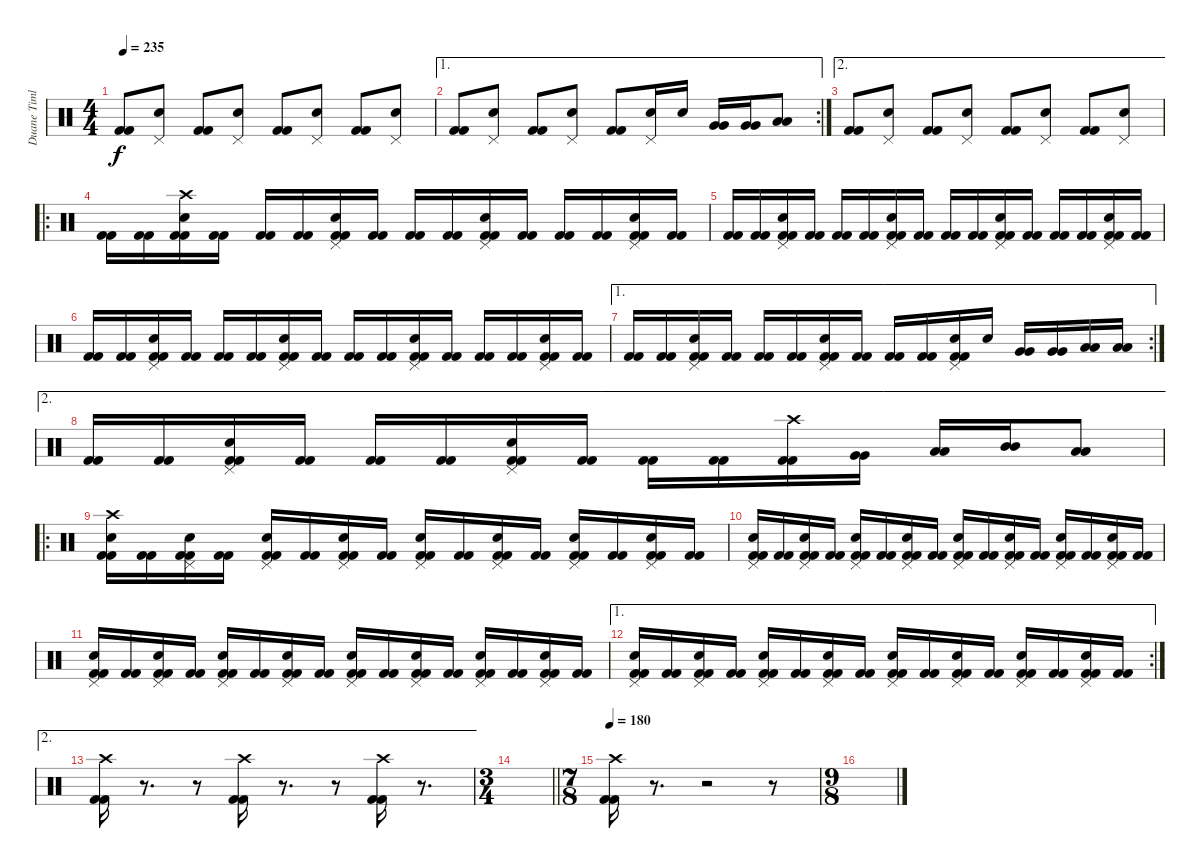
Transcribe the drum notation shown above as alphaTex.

\track ("Duane Timlin" "Duane Timl") {instrument percussion}
\staff {score}
\articulation defaults
\ts (4 4)
\tempo 235
\clef neutral
\ks c
("Kick (hit) 2" "Kick (hit) 2").8{dy f} ("Pedal Hi-Hat (hit)" "Electric Snare (hit)").8 ("Kick (hit) 2" "Kick (hit) 2").8 ("Pedal Hi-Hat (hit)" "Electric Snare (hit)").8 ("Kick (hit) 2" "Kick (hit) 2").8 ("Pedal Hi-Hat (hit)" "Electric Snare (hit)").8 ("Kick (hit) 2" "Kick (hit) 2").8 ("Pedal Hi-Hat (hit)" "Electric Snare (hit)").8 |
\ae 1
\rc 2
("Kick (hit) 2" "Kick (hit) 2").8 ("Pedal Hi-Hat (hit)" "Electric Snare (hit)").8 ("Kick (hit) 2" "Kick (hit) 2").8 ("Pedal Hi-Hat (hit)" "Electric Snare (hit)").8 ("Kick (hit) 2" "Kick (hit) 2").8 ("Pedal Hi-Hat (hit)" "Electric Snare (hit)").16 "Electric Snare (hit)".16 ("Very Low Tom (hit)" "Very Low Tom (hit)").16 ("Very Low Tom (hit)" "Very Low Tom (hit)").16 ("Low Tom (hit)" "Low Tom (hit)").8 |
\ae 2
("Kick (hit) 2" "Kick (hit) 2").8 ("Pedal Hi-Hat (hit)" "Electric Snare (hit)").8 ("Kick (hit) 2" "Kick (hit) 2").8 ("Pedal Hi-Hat (hit)" "Electric Snare (hit)").8 ("Kick (hit) 2" "Kick (hit) 2").8 ("Pedal Hi-Hat (hit)" "Electric Snare (hit)").8 ("Kick (hit) 2" "Kick (hit) 2").8 ("Pedal Hi-Hat (hit)" "Electric Snare (hit)").8 |
\ro
("Kick (hit) 2" "Kick (hit) 2").16 ("Kick (hit) 2" "Kick (hit) 2").16 ("Crash high (hit)" "Electric Snare (hit)" "Kick (hit) 2" "Kick (hit) 2").16 ("Kick (hit) 2" "Kick (hit) 2").16 ("Kick (hit) 2" "Kick (hit) 2").16 ("Kick (hit) 2" "Kick (hit) 2").16 ("Pedal Hi-Hat (hit)" "Electric Snare (hit)" "Kick (hit) 2" "Kick (hit) 2").16 ("Kick (hit) 2" "Kick (hit) 2").16 ("Kick (hit) 2" "Kick (hit) 2").16 ("Kick (hit) 2" "Kick (hit) 2").16 ("Pedal Hi-Hat (hit)" "Electric Snare (hit)" "Kick (hit) 2" "Kick (hit) 2").16 ("Kick (hit) 2" "Kick (hit) 2").16 ("Kick (hit) 2" "Kick (hit) 2").16 ("Kick (hit) 2" "Kick (hit) 2").16 ("Pedal Hi-Hat (hit)" "Electric Snare (hit)" "Kick (hit) 2" "Kick (hit) 2").16 ("Kick (hit) 2" "Kick (hit) 2").16 |
("Kick (hit) 2" "Kick (hit) 2").16 ("Kick (hit) 2" "Kick (hit) 2").16 ("Pedal Hi-Hat (hit)" "Electric Snare (hit)" "Kick (hit) 2" "Kick (hit) 2").16 ("Kick (hit) 2" "Kick (hit) 2").16 ("Kick (hit) 2" "Kick (hit) 2").16 ("Kick (hit) 2" "Kick (hit) 2").16 ("Pedal Hi-Hat (hit)" "Electric Snare (hit)" "Kick (hit) 2" "Kick (hit) 2").16 ("Kick (hit) 2" "Kick (hit) 2").16 ("Kick (hit) 2" "Kick (hit) 2").16 ("Kick (hit) 2" "Kick (hit) 2").16 ("Pedal Hi-Hat (hit)" "Electric Snare (hit)" "Kick (hit) 2" "Kick (hit) 2").16 ("Kick (hit) 2" "Kick (hit) 2").16 ("Kick (hit) 2" "Kick (hit) 2").16 ("Kick (hit) 2" "Kick (hit) 2").16 ("Pedal Hi-Hat (hit)" "Electric Snare (hit)" "Kick (hit) 2" "Kick (hit) 2").16 ("Kick (hit) 2" "Kick (hit) 2").16 |
("Kick (hit) 2" "Kick (hit) 2").16 ("Kick (hit) 2" "Kick (hit) 2").16 ("Pedal Hi-Hat (hit)" "Electric Snare (hit)" "Kick (hit) 2" "Kick (hit) 2").16 ("Kick (hit) 2" "Kick (hit) 2").16 ("Kick (hit) 2" "Kick (hit) 2").16 ("Kick (hit) 2" "Kick (hit) 2").16 ("Pedal Hi-Hat (hit)" "Electric Snare (hit)" "Kick (hit) 2" "Kick (hit) 2").16 ("Kick (hit) 2" "Kick (hit) 2").16 ("Kick (hit) 2" "Kick (hit) 2").16 ("Kick (hit) 2" "Kick (hit) 2").16 ("Pedal Hi-Hat (hit)" "Electric Snare (hit)" "Kick (hit) 2" "Kick (hit) 2").16 ("Kick (hit) 2" "Kick (hit) 2").16 ("Kick (hit) 2" "Kick (hit) 2").16 ("Kick (hit) 2" "Kick (hit) 2").16 ("Pedal Hi-Hat (hit)" "Electric Snare (hit)" "Kick (hit) 2" "Kick (hit) 2").16 ("Kick (hit) 2" "Kick (hit) 2").16 |
\ae 1
\rc 2
("Kick (hit) 2" "Kick (hit) 2").16 ("Kick (hit) 2" "Kick (hit) 2").16 ("Pedal Hi-Hat (hit)" "Electric Snare (hit)" "Kick (hit) 2" "Kick (hit) 2").16 ("Kick (hit) 2" "Kick (hit) 2").16 ("Kick (hit) 2" "Kick (hit) 2").16 ("Kick (hit) 2" "Kick (hit) 2").16 ("Pedal Hi-Hat (hit)" "Electric Snare (hit)" "Kick (hit) 2" "Kick (hit) 2").16 ("Kick (hit) 2" "Kick (hit) 2").16 ("Kick (hit) 2" "Kick (hit) 2").16 ("Kick (hit) 2" "Kick (hit) 2").16 ("Pedal Hi-Hat (hit)" "Electric Snare (hit)" "Kick (hit) 2" "Kick (hit) 2").16 "Electric Snare (hit)".16 ("Very Low Tom (hit)" "Very Low Tom (hit)").16 ("Very Low Tom (hit)" "Very Low Tom (hit)").16 ("Low Tom (hit)" "Low Tom (hit)").16 ("Low Tom (hit)" "Low Tom (hit)").16 |
\ae 2
("Kick (hit) 2" "Kick (hit) 2").16 ("Kick (hit) 2" "Kick (hit) 2").16 ("Pedal Hi-Hat (hit)" "Electric Snare (hit)" "Kick (hit) 2" "Kick (hit) 2").16 ("Kick (hit) 2" "Kick (hit) 2").16 ("Kick (hit) 2" "Kick (hit) 2").16 ("Kick (hit) 2" "Kick (hit) 2").16 ("Pedal Hi-Hat (hit)" "Electric Snare (hit)" "Kick (hit) 2" "Kick (hit) 2").16 ("Kick (hit) 2" "Kick (hit) 2").16 ("Kick (hit) 2" "Kick (hit) 2").16 ("Kick (hit) 2" "Kick (hit) 2").16 ("Crash high (hit)" "Kick (hit) 2" "Kick (hit) 2").16 ("Very Low Tom (hit)" "Very Low Tom (hit)").16 ("Low Tom (hit)" "Low Tom (hit)").16 ("Mid Tom (hit)" "Mid Tom (hit)").16 ("Low Tom (hit)" "Low Tom (hit)").8 |
\ro
("Crash high (hit)" "Electric Snare (hit)" "Kick (hit) 2" "Kick (hit) 2").16 ("Kick (hit) 2" "Kick (hit) 2").16 ("Pedal Hi-Hat (hit)" "Electric Snare (hit)" "Kick (hit) 2" "Kick (hit) 2").16 ("Kick (hit) 2" "Kick (hit) 2").16 ("Pedal Hi-Hat (hit)" "Electric Snare (hit)" "Kick (hit) 2" "Kick (hit) 2").16 ("Kick (hit) 2" "Kick (hit) 2").16 ("Pedal Hi-Hat (hit)" "Electric Snare (hit)" "Kick (hit) 2" "Kick (hit) 2").16 ("Kick (hit) 2" "Kick (hit) 2").16 ("Pedal Hi-Hat (hit)" "Electric Snare (hit)" "Kick (hit) 2" "Kick (hit) 2").16 ("Kick (hit) 2" "Kick (hit) 2").16 ("Pedal Hi-Hat (hit)" "Electric Snare (hit)" "Kick (hit) 2" "Kick (hit) 2").16 ("Kick (hit) 2" "Kick (hit) 2").16 ("Pedal Hi-Hat (hit)" "Electric Snare (hit)" "Kick (hit) 2" "Kick (hit) 2").16 ("Kick (hit) 2" "Kick (hit) 2").16 ("Pedal Hi-Hat (hit)" "Electric Snare (hit)" "Kick (hit) 2" "Kick (hit) 2").16 ("Kick (hit) 2" "Kick (hit) 2").16 |
("Pedal Hi-Hat (hit)" "Electric Snare (hit)" "Kick (hit) 2" "Kick (hit) 2").16 ("Kick (hit) 2" "Kick (hit) 2").16 ("Pedal Hi-Hat (hit)" "Electric Snare (hit)" "Kick (hit) 2" "Kick (hit) 2").16 ("Kick (hit) 2" "Kick (hit) 2").16 ("Pedal Hi-Hat (hit)" "Electric Snare (hit)" "Kick (hit) 2" "Kick (hit) 2").16 ("Kick (hit) 2" "Kick (hit) 2").16 ("Pedal Hi-Hat (hit)" "Electric Snare (hit)" "Kick (hit) 2" "Kick (hit) 2").16 ("Kick (hit) 2" "Kick (hit) 2").16 ("Pedal Hi-Hat (hit)" "Electric Snare (hit)" "Kick (hit) 2" "Kick (hit) 2").16 ("Kick (hit) 2" "Kick (hit) 2").16 ("Pedal Hi-Hat (hit)" "Electric Snare (hit)" "Kick (hit) 2" "Kick (hit) 2").16 ("Kick (hit) 2" "Kick (hit) 2").16 ("Pedal Hi-Hat (hit)" "Electric Snare (hit)" "Kick (hit) 2" "Kick (hit) 2").16 ("Kick (hit) 2" "Kick (hit) 2").16 ("Pedal Hi-Hat (hit)" "Electric Snare (hit)" "Kick (hit) 2" "Kick (hit) 2").16 ("Kick (hit) 2" "Kick (hit) 2").16 |
("Pedal Hi-Hat (hit)" "Electric Snare (hit)" "Kick (hit) 2" "Kick (hit) 2").16 ("Kick (hit) 2" "Kick (hit) 2").16 ("Pedal Hi-Hat (hit)" "Electric Snare (hit)" "Kick (hit) 2" "Kick (hit) 2").16 ("Kick (hit) 2" "Kick (hit) 2").16 ("Pedal Hi-Hat (hit)" "Electric Snare (hit)" "Kick (hit) 2" "Kick (hit) 2").16 ("Kick (hit) 2" "Kick (hit) 2").16 ("Pedal Hi-Hat (hit)" "Electric Snare (hit)" "Kick (hit) 2" "Kick (hit) 2").16 ("Kick (hit) 2" "Kick (hit) 2").16 ("Pedal Hi-Hat (hit)" "Electric Snare (hit)" "Kick (hit) 2" "Kick (hit) 2").16 ("Kick (hit) 2" "Kick (hit) 2").16 ("Pedal Hi-Hat (hit)" "Electric Snare (hit)" "Kick (hit) 2" "Kick (hit) 2").16 ("Kick (hit) 2" "Kick (hit) 2").16 ("Pedal Hi-Hat (hit)" "Electric Snare (hit)" "Kick (hit) 2" "Kick (hit) 2").16 ("Kick (hit) 2" "Kick (hit) 2").16 ("Pedal Hi-Hat (hit)" "Electric Snare (hit)" "Kick (hit) 2" "Kick (hit) 2").16 ("Kick (hit) 2" "Kick (hit) 2").16 |
\ae 1
\rc 2
("Pedal Hi-Hat (hit)" "Electric Snare (hit)" "Kick (hit) 2" "Kick (hit) 2").16 ("Kick (hit) 2" "Kick (hit) 2").16 ("Pedal Hi-Hat (hit)" "Electric Snare (hit)" "Kick (hit) 2" "Kick (hit) 2").16 ("Kick (hit) 2" "Kick (hit) 2").16 ("Pedal Hi-Hat (hit)" "Electric Snare (hit)" "Kick (hit) 2" "Kick (hit) 2").16 ("Kick (hit) 2" "Kick (hit) 2").16 ("Pedal Hi-Hat (hit)" "Electric Snare (hit)" "Kick (hit) 2" "Kick (hit) 2").16 ("Kick (hit) 2" "Kick (hit) 2").16 ("Pedal Hi-Hat (hit)" "Electric Snare (hit)" "Kick (hit) 2" "Kick (hit) 2").16 ("Kick (hit) 2" "Kick (hit) 2").16 ("Pedal Hi-Hat (hit)" "Electric Snare (hit)" "Kick (hit) 2" "Kick (hit) 2").16 ("Kick (hit) 2" "Kick (hit) 2").16 ("Pedal Hi-Hat (hit)" "Electric Snare (hit)" "Kick (hit) 2" "Kick (hit) 2").16 ("Kick (hit) 2" "Kick (hit) 2").16 ("Pedal Hi-Hat (hit)" "Electric Snare (hit)" "Kick (hit) 2" "Kick (hit) 2").16 ("Kick (hit) 2" "Kick (hit) 2").16 |
\ae 2
("Crash high (hit)" "Kick (hit) 2" "Kick (hit) 2").16 r.8{d} r.8 ("Crash high (hit)" "Kick (hit) 2" "Kick (hit) 2").16 r.8{d} r.8 ("Crash high (hit)" "Kick (hit) 2" "Kick (hit) 2").16 r.8{d} |
\ts (3 4)
\barLineRight lightlight
|
\ts (7 8)
\tempo 180
("Crash high (hit)" "Kick (hit) 2" "Kick (hit) 2").16 r.8{d} r.2 r.8 |
\ts (9 8)
